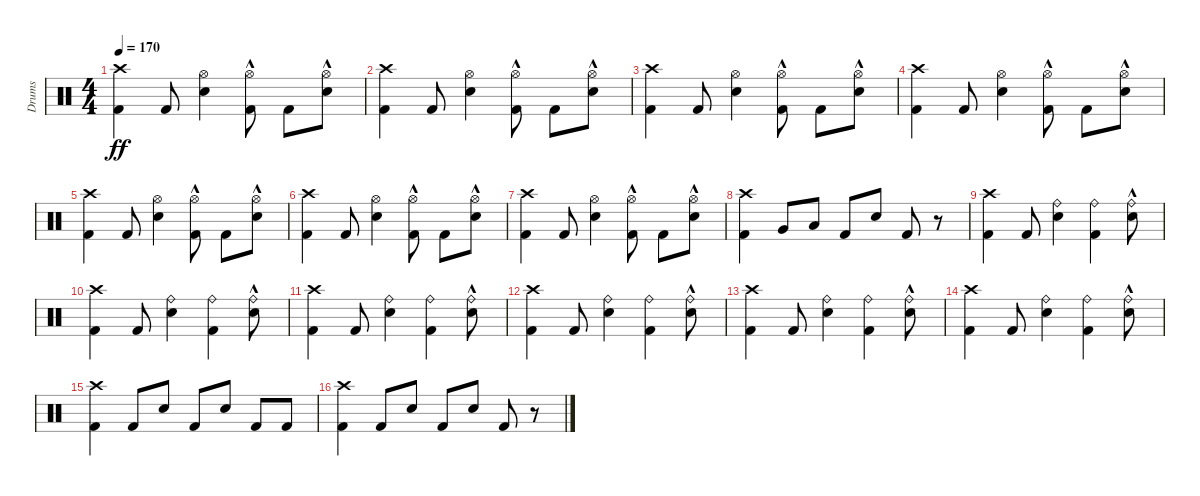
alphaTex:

\track ("Drums" "Drums") {instrument percussion}
\staff {score}
\articulation defaults
\ts (4 4)
\tempo 170
\clef neutral
\ks c
("Kick (hit) 2" "Crash high (hit)").4{dy ff} "Kick (hit) 2".8 ("Snare (hit) 2" "Hi-Hat (open)").4 ("Kick (hit) 2" "Hi-Hat (open)"{hac}).8 "Kick (hit) 2".8 ("Snare (hit) 2" "Hi-Hat (open)"{hac}).8 |
("Kick (hit) 2" "Crash high (hit)").4 "Kick (hit) 2".8 ("Snare (hit) 2" "Hi-Hat (open)").4 ("Kick (hit) 2" "Hi-Hat (open)"{hac}).8 "Kick (hit) 2".8 ("Snare (hit) 2" "Hi-Hat (open)"{hac}).8 |
("Kick (hit) 2" "Crash high (hit)").4 "Kick (hit) 2".8 ("Snare (hit) 2" "Hi-Hat (open)").4 ("Kick (hit) 2" "Hi-Hat (open)"{hac}).8 "Kick (hit) 2".8 ("Snare (hit) 2" "Hi-Hat (open)"{hac}).8 |
("Kick (hit) 2" "Crash high (hit)").4 "Kick (hit) 2".8 ("Snare (hit) 2" "Hi-Hat (open)").4 ("Kick (hit) 2" "Hi-Hat (open)"{hac}).8 "Kick (hit) 2".8 ("Snare (hit) 2" "Hi-Hat (open)"{hac}).8 |
("Kick (hit) 2" "Crash high (hit)").4 "Kick (hit) 2".8 ("Snare (hit) 2" "Hi-Hat (open)").4 ("Kick (hit) 2" "Hi-Hat (open)"{hac}).8 "Kick (hit) 2".8 ("Snare (hit) 2" "Hi-Hat (open)"{hac}).8 |
("Kick (hit) 2" "Crash high (hit)").4 "Kick (hit) 2".8 ("Snare (hit) 2" "Hi-Hat (open)").4 ("Kick (hit) 2" "Hi-Hat (open)"{hac}).8 "Kick (hit) 2".8 ("Snare (hit) 2" "Hi-Hat (open)"{hac}).8 |
("Kick (hit) 2" "Crash high (hit)").4 "Kick (hit) 2".8 ("Snare (hit) 2" "Hi-Hat (open)").4 ("Kick (hit) 2" "Hi-Hat (open)"{hac}).8 "Kick (hit) 2".8 ("Snare (hit) 2" "Hi-Hat (open)"{hac}).8 |
("Kick (hit) 2" "Crash high (hit)").4 "Very Low Tom (hit)".8 "Low Floor Tom (hit)".8 "Kick (hit) 2".8 "Snare (hit) 2".8 "Kick (hit) 2".8 r.8 |
("Kick (hit) 2" "Crash high (hit)").4 "Kick (hit) 2".8 ("Snare (hit) 2" "Ride (bell)").4 ("Kick (hit) 2" "Ride (bell)").4 ("Snare (hit) 2" "Ride (bell)"{hac}).8 |
("Kick (hit) 2" "Crash high (hit)").4 "Kick (hit) 2".8 ("Snare (hit) 2" "Ride (bell)").4 ("Kick (hit) 2" "Ride (bell)").4 ("Snare (hit) 2" "Ride (bell)"{hac}).8 |
("Kick (hit) 2" "Crash high (hit)").4 "Kick (hit) 2".8 ("Snare (hit) 2" "Ride (bell)").4 ("Kick (hit) 2" "Ride (bell)").4 ("Snare (hit) 2" "Ride (bell)"{hac}).8 |
("Kick (hit) 2" "Crash high (hit)").4 "Kick (hit) 2".8 ("Snare (hit) 2" "Ride (bell)").4 ("Kick (hit) 2" "Ride (bell)").4 ("Snare (hit) 2" "Ride (bell)"{hac}).8 |
("Kick (hit) 2" "Crash high (hit)").4 "Kick (hit) 2".8 ("Snare (hit) 2" "Ride (bell)").4 ("Kick (hit) 2" "Ride (bell)").4 ("Snare (hit) 2" "Ride (bell)"{hac}).8 |
("Kick (hit) 2" "Crash high (hit)").4 "Kick (hit) 2".8 ("Snare (hit) 2" "Ride (bell)").4 ("Kick (hit) 2" "Ride (bell)").4 ("Snare (hit) 2" "Ride (bell)"{hac}).8 |
("Kick (hit) 2" "Crash high (hit)").4 "Kick (hit) 2".8 "Snare (hit) 2".8 "Kick (hit) 2".8 "Snare (hit) 2".8 "Kick (hit) 2".8 "Kick (hit) 2".8 |
("Kick (hit) 2" "Crash high (hit)").4 "Kick (hit) 2".8 "Snare (hit) 2".8 "Kick (hit) 2".8 "Snare (hit) 2".8 "Kick (hit) 2".8 r.8
